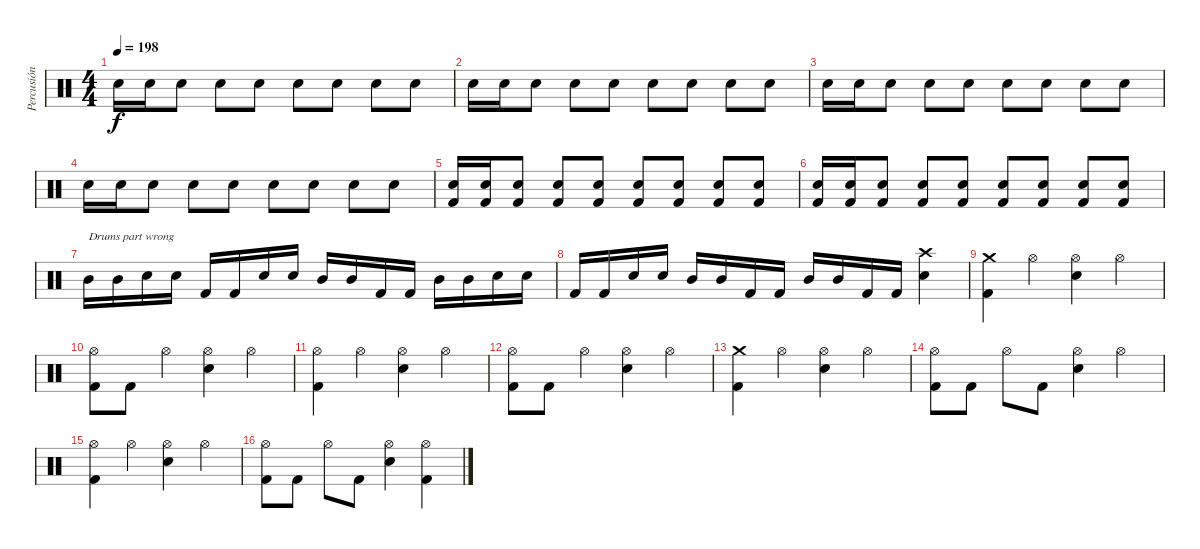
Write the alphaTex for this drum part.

\track ("Percusión" "Percusión") {instrument percussion}
\staff {score}
\articulation defaults
\ts (4 4)
\tempo 198
\clef neutral
\ks c "Electric Snare (hit)".16{dy f} "Electric Snare (hit)".16 "Electric Snare (hit)".8 "Electric Snare (hit)".8 "Electric Snare (hit)".8 "Electric Snare (hit)".8 "Electric Snare (hit)".8 "Electric Snare (hit)".8 "Electric Snare (hit)".8
|
"Electric Snare (hit)".16 "Electric Snare (hit)".16 "Electric Snare (hit)".8 "Electric Snare (hit)".8 "Electric Snare (hit)".8 "Electric Snare (hit)".8 "Electric Snare (hit)".8 "Electric Snare (hit)".8 "Electric Snare (hit)".8 |
"Electric Snare (hit)".16 "Electric Snare (hit)".16 "Electric Snare (hit)".8 "Electric Snare (hit)".8 "Electric Snare (hit)".8 "Electric Snare (hit)".8 "Electric Snare (hit)".8 "Electric Snare (hit)".8 "Electric Snare (hit)".8 |
"Electric Snare (hit)".16 "Electric Snare (hit)".16 "Electric Snare (hit)".8 "Electric Snare (hit)".8 "Electric Snare (hit)".8 "Electric Snare (hit)".8 "Electric Snare (hit)".8 "Electric Snare (hit)".8 "Electric Snare (hit)".8 |
("Electric Snare (hit)" "Kick (hit) 2").16 ("Electric Snare (hit)" "Kick (hit) 2").16 ("Electric Snare (hit)" "Kick (hit) 2").8 ("Electric Snare (hit)" "Kick (hit) 2").8 ("Electric Snare (hit)" "Kick (hit) 2").8 ("Electric Snare (hit)" "Kick (hit) 2").8 ("Electric Snare (hit)" "Kick (hit) 2").8 ("Electric Snare (hit)" "Kick (hit) 2").8 ("Electric Snare (hit)" "Kick (hit) 2").8 |
("Electric Snare (hit)" "Kick (hit) 2").16 ("Electric Snare (hit)" "Kick (hit) 2").16 ("Electric Snare (hit)" "Kick (hit) 2").8 ("Electric Snare (hit)" "Kick (hit) 2").8 ("Electric Snare (hit)" "Kick (hit) 2").8 ("Electric Snare (hit)" "Kick (hit) 2").8 ("Electric Snare (hit)" "Kick (hit) 2").8 ("Electric Snare (hit)" "Kick (hit) 2").8 ("Electric Snare (hit)" "Kick (hit) 2").8 |
"Mid Tom (hit)".16{txt "Drums part wrong"} "Mid Tom (hit)".16 "Electric Snare (hit)".16 "Electric Snare (hit)".16 "Kick (hit) 2".16 "Kick (hit) 2".16 "Electric Snare (hit)".16 "Electric Snare (hit)".16 "Mid Tom (hit)".16 "Mid Tom (hit)".16 "Kick (hit) 2".16 "Kick (hit) 2".16 "Mid Tom (hit)".16 "Mid Tom (hit)".16 "Electric Snare (hit)".16 "Electric Snare (hit)".16 |
"Kick (hit) 2".16 "Kick (hit) 2".16 "Electric Snare (hit)".16 "Electric Snare (hit)".16 "Mid Tom (hit)".16 "Mid Tom (hit)".16 "Kick (hit) 2".16 "Kick (hit) 2".16 "Mid Tom (hit)".16 "Mid Tom (hit)".16 "Kick (hit) 2".16 "Kick (hit) 2".16 ("Crash high (hit)" "Electric Snare (hit)").4 |
("Crash medium (hit)" "Kick (hit) 2").4 "Hi-Hat (open)".4 ("Hi-Hat (open)" "Electric Snare (hit)").4 "Hi-Hat (open)".4 |
("Hi-Hat (open)" "Kick (hit) 2").8 "Kick (hit) 2".8 "Hi-Hat (open)".4 ("Hi-Hat (open)" "Electric Snare (hit)").4 "Hi-Hat (open)".4 |
("Hi-Hat (open)" "Kick (hit) 2").4 "Hi-Hat (open)".4 ("Hi-Hat (open)" "Electric Snare (hit)").4 "Hi-Hat (open)".4 |
("Hi-Hat (open)" "Kick (hit) 2").8 "Kick (hit) 2".8 "Hi-Hat (open)".4 ("Hi-Hat (open)" "Electric Snare (hit)").4 "Hi-Hat (open)".4 |
("Crash medium (hit)" "Kick (hit) 2").4 "Hi-Hat (open)".4 ("Hi-Hat (open)" "Electric Snare (hit)").4 "Hi-Hat (open)".4 |
("Hi-Hat (open)" "Kick (hit) 2").8 "Kick (hit) 2".8 "Hi-Hat (open)".8 "Kick (hit) 2".8 ("Hi-Hat (open)" "Electric Snare (hit)").4 "Hi-Hat (open)".4 |
("Hi-Hat (open)" "Kick (hit) 2").4 "Hi-Hat (open)".4 ("Hi-Hat (open)" "Electric Snare (hit)").4 "Hi-Hat (open)".4 |
("Hi-Hat (open)" "Kick (hit) 2").8 "Kick (hit) 2".8 "Hi-Hat (open)".8 "Kick (hit) 2".8 ("Hi-Hat (open)" "Electric Snare (hit)").4 ("Hi-Hat (open)" "Kick (hit) 2").4
